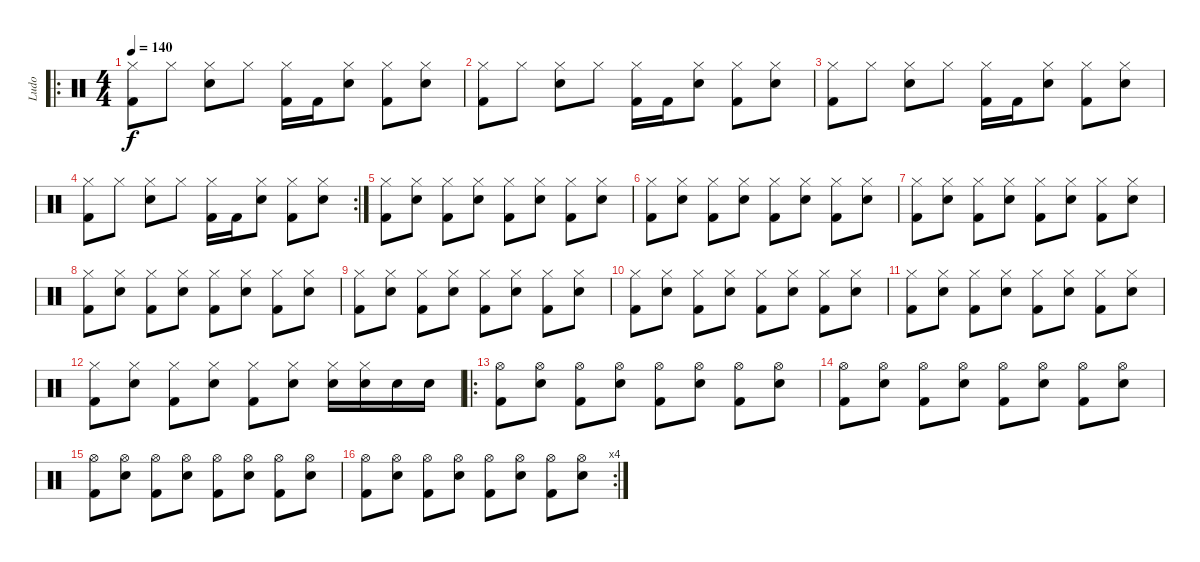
\track ("Ludo" "Ludo") {instrument percussion}
\staff {score}
\articulation defaults
\ro
\ts (4 4)
\tempo 140
\clef neutral
\ks c
("Hi-Hat (closed)" "Kick (hit) 2").8{dy f} "Hi-Hat (closed)".8 ("Hi-Hat (closed)" "Electric Snare (hit)").8 "Hi-Hat (closed)".8 ("Hi-Hat (closed)" "Kick (hit) 2").16 "Kick (hit) 2".16 ("Hi-Hat (closed)" "Electric Snare (hit)").8 ("Hi-Hat (closed)" "Kick (hit) 2").8 ("Hi-Hat (closed)" "Electric Snare (hit)").8 |
("Hi-Hat (closed)" "Kick (hit) 2").8 "Hi-Hat (closed)".8 ("Hi-Hat (closed)" "Electric Snare (hit)").8 "Hi-Hat (closed)".8 ("Hi-Hat (closed)" "Kick (hit) 2").16 "Kick (hit) 2".16 ("Hi-Hat (closed)" "Electric Snare (hit)").8 ("Hi-Hat (closed)" "Kick (hit) 2").8 ("Hi-Hat (closed)" "Electric Snare (hit)").8 |
("Hi-Hat (closed)" "Kick (hit) 2").8 "Hi-Hat (closed)".8 ("Hi-Hat (closed)" "Electric Snare (hit)").8 "Hi-Hat (closed)".8 ("Hi-Hat (closed)" "Kick (hit) 2").16 "Kick (hit) 2".16 ("Hi-Hat (closed)" "Electric Snare (hit)").8 ("Hi-Hat (closed)" "Kick (hit) 2").8 ("Hi-Hat (closed)" "Electric Snare (hit)").8 |
\rc 2
("Hi-Hat (closed)" "Kick (hit) 2").8 "Hi-Hat (closed)".8 ("Hi-Hat (closed)" "Electric Snare (hit)").8 "Hi-Hat (closed)".8 ("Hi-Hat (closed)" "Kick (hit) 2").16 "Kick (hit) 2".16 ("Hi-Hat (closed)" "Electric Snare (hit)").8 ("Hi-Hat (closed)" "Kick (hit) 2").8 ("Hi-Hat (closed)" "Electric Snare (hit)").8 |
("Hi-Hat (closed)" "Kick (hit) 2").8 ("Hi-Hat (closed)" "Electric Snare (hit)").8 ("Hi-Hat (closed)" "Kick (hit) 2").8 ("Hi-Hat (closed)" "Electric Snare (hit)").8 ("Hi-Hat (closed)" "Kick (hit) 2").8 ("Hi-Hat (closed)" "Electric Snare (hit)").8 ("Hi-Hat (closed)" "Kick (hit) 2").8 ("Hi-Hat (closed)" "Electric Snare (hit)").8 |
("Hi-Hat (closed)" "Kick (hit) 2").8 ("Hi-Hat (closed)" "Electric Snare (hit)").8 ("Hi-Hat (closed)" "Kick (hit) 2").8 ("Hi-Hat (closed)" "Electric Snare (hit)").8 ("Hi-Hat (closed)" "Kick (hit) 2").8 ("Hi-Hat (closed)" "Electric Snare (hit)").8 ("Hi-Hat (closed)" "Kick (hit) 2").8 ("Hi-Hat (closed)" "Electric Snare (hit)").8 |
("Hi-Hat (closed)" "Kick (hit) 2").8 ("Hi-Hat (closed)" "Electric Snare (hit)").8 ("Hi-Hat (closed)" "Kick (hit) 2").8 ("Hi-Hat (closed)" "Electric Snare (hit)").8 ("Hi-Hat (closed)" "Kick (hit) 2").8 ("Hi-Hat (closed)" "Electric Snare (hit)").8 ("Hi-Hat (closed)" "Kick (hit) 2").8 ("Hi-Hat (closed)" "Electric Snare (hit)").8 |
("Hi-Hat (closed)" "Kick (hit) 2").8 ("Hi-Hat (closed)" "Electric Snare (hit)").8 ("Hi-Hat (closed)" "Kick (hit) 2").8 ("Hi-Hat (closed)" "Electric Snare (hit)").8 ("Hi-Hat (closed)" "Kick (hit) 2").8 ("Hi-Hat (closed)" "Electric Snare (hit)").8 ("Hi-Hat (closed)" "Kick (hit) 2").8 ("Hi-Hat (closed)" "Electric Snare (hit)").8 |
("Hi-Hat (closed)" "Kick (hit) 2").8 ("Hi-Hat (closed)" "Electric Snare (hit)").8 ("Hi-Hat (closed)" "Kick (hit) 2").8 ("Hi-Hat (closed)" "Electric Snare (hit)").8 ("Hi-Hat (closed)" "Kick (hit) 2").8 ("Hi-Hat (closed)" "Electric Snare (hit)").8 ("Hi-Hat (closed)" "Kick (hit) 2").8 ("Hi-Hat (closed)" "Electric Snare (hit)").8 |
("Hi-Hat (closed)" "Kick (hit) 2").8 ("Hi-Hat (closed)" "Electric Snare (hit)").8 ("Hi-Hat (closed)" "Kick (hit) 2").8 ("Hi-Hat (closed)" "Electric Snare (hit)").8 ("Hi-Hat (closed)" "Kick (hit) 2").8 ("Hi-Hat (closed)" "Electric Snare (hit)").8 ("Hi-Hat (closed)" "Kick (hit) 2").8 ("Hi-Hat (closed)" "Electric Snare (hit)").8 |
("Hi-Hat (closed)" "Kick (hit) 2").8 ("Hi-Hat (closed)" "Electric Snare (hit)").8 ("Hi-Hat (closed)" "Kick (hit) 2").8 ("Hi-Hat (closed)" "Electric Snare (hit)").8 ("Hi-Hat (closed)" "Kick (hit) 2").8 ("Hi-Hat (closed)" "Electric Snare (hit)").8 ("Hi-Hat (closed)" "Kick (hit) 2").8 ("Hi-Hat (closed)" "Electric Snare (hit)").8 |
("Hi-Hat (closed)" "Kick (hit) 2").8 ("Hi-Hat (closed)" "Electric Snare (hit)").8 ("Hi-Hat (closed)" "Kick (hit) 2").8 ("Hi-Hat (closed)" "Electric Snare (hit)").8 ("Hi-Hat (closed)" "Kick (hit) 2").8 ("Hi-Hat (closed)" "Electric Snare (hit)").8 ("Hi-Hat (closed)" "Electric Snare (hit)").16 ("Hi-Hat (closed)" "Electric Snare (hit)").16 "Electric Snare (hit)".16 "Electric Snare (hit)".16 |
\ro
("Hi-Hat (open)" "Kick (hit) 2").8 ("Hi-Hat (open)" "Electric Snare (hit)").8 ("Hi-Hat (open)" "Kick (hit) 2").8 ("Hi-Hat (open)" "Electric Snare (hit)").8 ("Hi-Hat (open)" "Kick (hit) 2").8 ("Hi-Hat (open)" "Electric Snare (hit)").8 ("Hi-Hat (open)" "Kick (hit) 2").8 ("Hi-Hat (open)" "Electric Snare (hit)").8 |
("Hi-Hat (open)" "Kick (hit) 2").8 ("Hi-Hat (open)" "Electric Snare (hit)").8 ("Hi-Hat (open)" "Kick (hit) 2").8 ("Hi-Hat (open)" "Electric Snare (hit)").8 ("Hi-Hat (open)" "Kick (hit) 2").8 ("Hi-Hat (open)" "Electric Snare (hit)").8 ("Hi-Hat (open)" "Kick (hit) 2").8 ("Hi-Hat (open)" "Electric Snare (hit)").8 |
("Hi-Hat (open)" "Kick (hit) 2").8 ("Hi-Hat (open)" "Electric Snare (hit)").8 ("Hi-Hat (open)" "Kick (hit) 2").8 ("Hi-Hat (open)" "Electric Snare (hit)").8 ("Hi-Hat (open)" "Kick (hit) 2").8 ("Hi-Hat (open)" "Electric Snare (hit)").8 ("Hi-Hat (open)" "Kick (hit) 2").8 ("Hi-Hat (open)" "Electric Snare (hit)").8 |
\rc 4
("Hi-Hat (open)" "Kick (hit) 2").8 ("Hi-Hat (open)" "Electric Snare (hit)").8 ("Hi-Hat (open)" "Kick (hit) 2").8 ("Hi-Hat (open)" "Electric Snare (hit)").8 ("Hi-Hat (open)" "Kick (hit) 2").8 ("Hi-Hat (open)" "Electric Snare (hit)").8 ("Hi-Hat (open)" "Kick (hit) 2").8 ("Hi-Hat (open)" "Electric Snare (hit)").8
